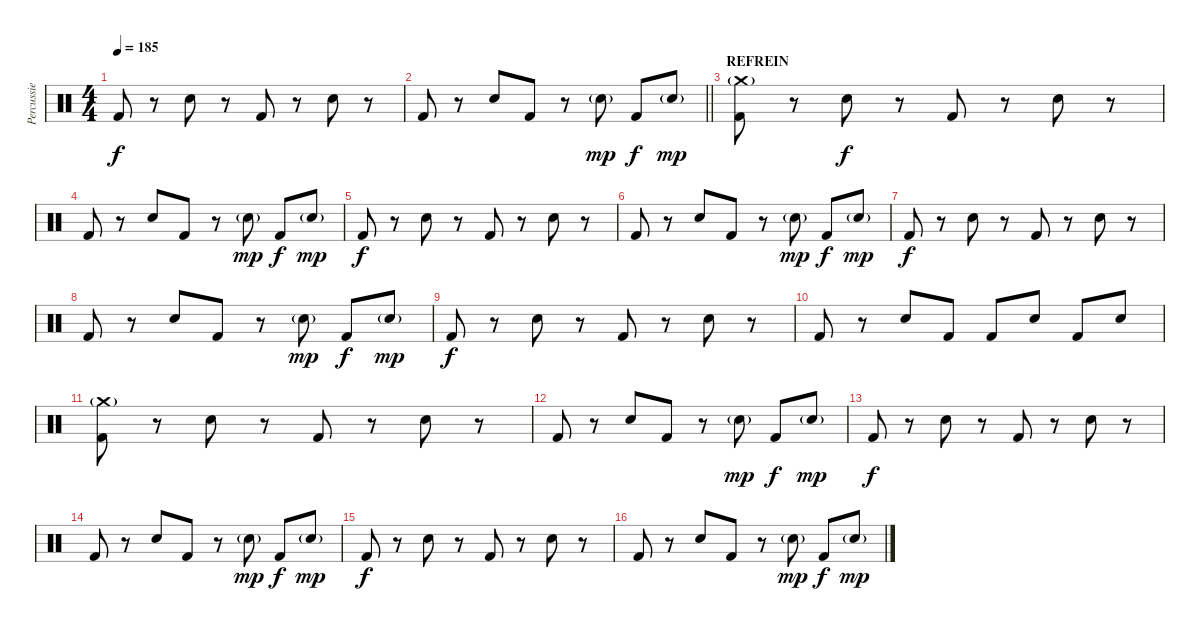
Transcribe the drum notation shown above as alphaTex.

\track ("Percussie" "Percussie") {instrument percussion}
\staff {score}
\articulation defaults
\ts (4 4)
\tempo 185
\clef neutral
\ks c "Kick (hit) 2".8{dy f}
r.8 "Snare (hit) 2".8 r.8 "Kick (hit) 2".8 r.8 "Snare (hit) 2".8 r.8 |
\barLineRight lightlight "Kick (hit) 2".8
r.8 "Snare (hit) 2".8 "Kick (hit) 2".8 r.8 "Snare (hit) 2"{g}.8{dy mp} "Kick (hit) 2".8{dy f} "Snare (hit) 2"{g}.8{dy mp} |
\section ("" "REFREIN")
("Crash medium (hit)"{g} "Kick (hit) 2").8 r.8 "Snare (hit) 2".8{dy f} r.8 "Kick (hit) 2".8 r.8 "Snare (hit) 2".8 r.8 |
"Kick (hit) 2".8 r.8 "Snare (hit) 2".8 "Kick (hit) 2".8 r.8 "Snare (hit) 2"{g}.8{dy mp} "Kick (hit) 2".8{dy f} "Snare (hit) 2"{g}.8{dy mp} |
"Kick (hit) 2".8{dy f} r.8 "Snare (hit) 2".8 r.8 "Kick (hit) 2".8 r.8 "Snare (hit) 2".8 r.8 |
"Kick (hit) 2".8 r.8 "Snare (hit) 2".8 "Kick (hit) 2".8 r.8 "Snare (hit) 2"{g}.8{dy mp} "Kick (hit) 2".8{dy f} "Snare (hit) 2"{g}.8{dy mp} |
"Kick (hit) 2".8{dy f} r.8 "Snare (hit) 2".8 r.8 "Kick (hit) 2".8 r.8 "Snare (hit) 2".8 r.8 |
"Kick (hit) 2".8 r.8 "Snare (hit) 2".8 "Kick (hit) 2".8 r.8 "Snare (hit) 2"{g}.8{dy mp} "Kick (hit) 2".8{dy f} "Snare (hit) 2"{g}.8{dy mp} |
"Kick (hit) 2".8{dy f} r.8 "Snare (hit) 2".8 r.8 "Kick (hit) 2".8 r.8 "Snare (hit) 2".8 r.8 |
"Kick (hit) 2".8 r.8 "Snare (hit) 2".8 "Kick (hit) 2".8 "Kick (hit) 2".8 "Snare (hit) 2".8 "Kick (hit) 2".8 "Snare (hit) 2".8 |
("Crash medium (hit)"{g} "Kick (hit) 2").8 r.8 "Snare (hit) 2".8 r.8 "Kick (hit) 2".8 r.8 "Snare (hit) 2".8 r.8 |
"Kick (hit) 2".8 r.8 "Snare (hit) 2".8 "Kick (hit) 2".8 r.8 "Snare (hit) 2"{g}.8{dy mp} "Kick (hit) 2".8{dy f} "Snare (hit) 2"{g}.8{dy mp} |
"Kick (hit) 2".8{dy f} r.8 "Snare (hit) 2".8 r.8 "Kick (hit) 2".8 r.8 "Snare (hit) 2".8 r.8 |
"Kick (hit) 2".8 r.8 "Snare (hit) 2".8 "Kick (hit) 2".8 r.8 "Snare (hit) 2"{g}.8{dy mp} "Kick (hit) 2".8{dy f} "Snare (hit) 2"{g}.8{dy mp} |
"Kick (hit) 2".8{dy f} r.8 "Snare (hit) 2".8 r.8 "Kick (hit) 2".8 r.8 "Snare (hit) 2".8 r.8 |
"Kick (hit) 2".8 r.8 "Snare (hit) 2".8 "Kick (hit) 2".8 r.8 "Snare (hit) 2"{g}.8{dy mp} "Kick (hit) 2".8{dy f} "Snare (hit) 2"{g}.8{dy mp}
